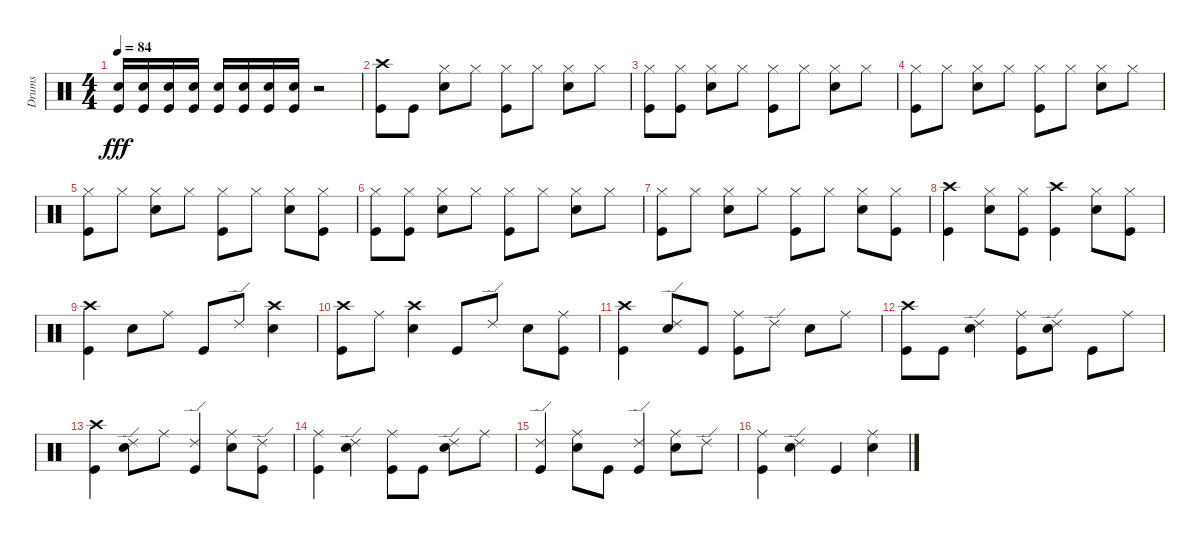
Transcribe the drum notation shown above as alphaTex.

\track ("Drums" "Drums") {instrument percussion}
\staff {score}
\articulation defaults
\ts (4 4)
\tempo 84
\clef neutral
\ks c
("Snare (hit) 2" "Kick (hit)").16{dy fff} ("Snare (hit) 2" "Kick (hit)").16 ("Snare (hit) 2" "Kick (hit)").16 ("Snare (hit) 2" "Kick (hit)").16 ("Snare (hit) 2" "Kick (hit)").16 ("Snare (hit) 2" "Kick (hit)").16 ("Snare (hit) 2" "Kick (hit)").16 ("Snare (hit) 2" "Kick (hit)").16 r.2 |
("Crash high (hit)" "Kick (hit)").8 "Kick (hit)".8 ("Hi-Hat (closed)" "Snare (hit) 2").8 "Hi-Hat (closed)".8 ("Hi-Hat (closed)" "Kick (hit)").8 "Hi-Hat (closed)".8 ("Hi-Hat (closed)" "Snare (hit) 2").8 "Hi-Hat (closed)".8 |
("Hi-Hat (closed)" "Kick (hit)").8 ("Hi-Hat (closed)" "Kick (hit)").8 ("Hi-Hat (closed)" "Snare (hit) 2").8 "Hi-Hat (closed)".8 ("Hi-Hat (closed)" "Kick (hit)").8 "Hi-Hat (closed)".8 ("Hi-Hat (closed)" "Snare (hit) 2").8 "Hi-Hat (closed)".8 |
("Hi-Hat (closed)" "Kick (hit)").8 "Hi-Hat (closed)".8 ("Hi-Hat (closed)" "Snare (hit) 2").8 "Hi-Hat (closed)".8 ("Hi-Hat (closed)" "Kick (hit)").8 "Hi-Hat (closed)".8 ("Hi-Hat (closed)" "Snare (hit) 2").8 "Hi-Hat (closed)".8 |
("Hi-Hat (closed)" "Kick (hit)").8 "Hi-Hat (closed)".8 ("Hi-Hat (closed)" "Snare (hit) 2").8 "Hi-Hat (closed)".8 ("Hi-Hat (closed)" "Kick (hit)").8 "Hi-Hat (closed)".8 ("Hi-Hat (closed)" "Snare (hit) 2").8 ("Hi-Hat (closed)" "Kick (hit)").8 |
("Hi-Hat (closed)" "Kick (hit)").8 ("Hi-Hat (closed)" "Kick (hit)").8 ("Hi-Hat (closed)" "Snare (hit) 2").8 "Hi-Hat (closed)".8 ("Hi-Hat (closed)" "Kick (hit)").8 "Hi-Hat (closed)".8 ("Hi-Hat (closed)" "Snare (hit) 2").8 "Hi-Hat (closed)".8 |
("Hi-Hat (closed)" "Kick (hit)").8 "Hi-Hat (closed)".8 ("Hi-Hat (closed)" "Snare (hit) 2").8 "Hi-Hat (closed)".8 ("Hi-Hat (closed)" "Kick (hit)").8 "Hi-Hat (closed)".8 ("Hi-Hat (closed)" "Snare (hit) 2").8 ("Hi-Hat (closed)" "Kick (hit)").8 |
("Crash high (hit)" "Kick (hit)").4 ("Hi-Hat (closed)" "Snare (hit) 2").8 ("Hi-Hat (closed)" "Kick (hit)").8 ("Crash high (hit)" "Kick (hit)").4 ("Hi-Hat (closed)" "Snare (hit) 2").8 ("Hi-Hat (closed)" "Kick (hit)").8 |
("Crash high (hit)" "Kick (hit)").4 "Snare (hit) 2".8 "Ride (middle)".8 "Kick (hit)".8 "Ride (edge) 2".8 ("Crash high (hit)" "Snare (hit) 2").4 |
("Crash high (hit)" "Kick (hit)").8 "Ride (middle)".8 ("Crash high (hit)" "Snare (hit) 2").4 "Kick (hit)".8 "Ride (edge) 2".8 "Snare (hit) 2".8 ("Ride (middle)" "Kick (hit)").8 |
("Crash high (hit)" "Kick (hit)").4 ("Ride (edge) 2" "Snare (hit) 2").8 "Kick (hit)".8 ("Ride (middle)" "Kick (hit)").8 "Ride (edge) 2".8 "Snare (hit) 2".8 "Ride (middle)".8 |
("Crash high (hit)" "Kick (hit)").8 "Kick (hit)".8 ("Ride (edge) 2" "Snare (hit) 2").4 ("Ride (middle)" "Kick (hit)").8 ("Ride (edge) 2" "Snare (hit) 2").8 "Kick (hit)".8 "Ride (middle)".8 |
("Crash high (hit)" "Kick (hit)").4 ("Ride (edge) 2" "Snare (hit) 2").8 "Ride (middle)".8 ("Ride (edge) 2" "Kick (hit)").4 ("Ride (middle)" "Snare (hit) 2").8 ("Ride (edge) 2" "Kick (hit)").8 |
("Ride (middle)" "Kick (hit)").4 ("Ride (edge) 2" "Snare (hit) 2").4 ("Ride (middle)" "Kick (hit)").8 "Kick (hit)".8 ("Ride (edge) 2" "Snare (hit) 2").8 "Ride (middle)".8 |
("Ride (edge) 2" "Kick (hit)").4 ("Ride (middle)" "Snare (hit) 2").8 "Kick (hit)".8 ("Ride (edge) 2" "Kick (hit)").4 ("Ride (middle)" "Snare (hit) 2").8 "Ride (edge) 2".8 |
("Ride (middle)" "Kick (hit)").4 ("Ride (edge) 2" "Snare (hit) 2").4 "Kick (hit)".4 ("Ride (middle)" "Snare (hit) 2").4
